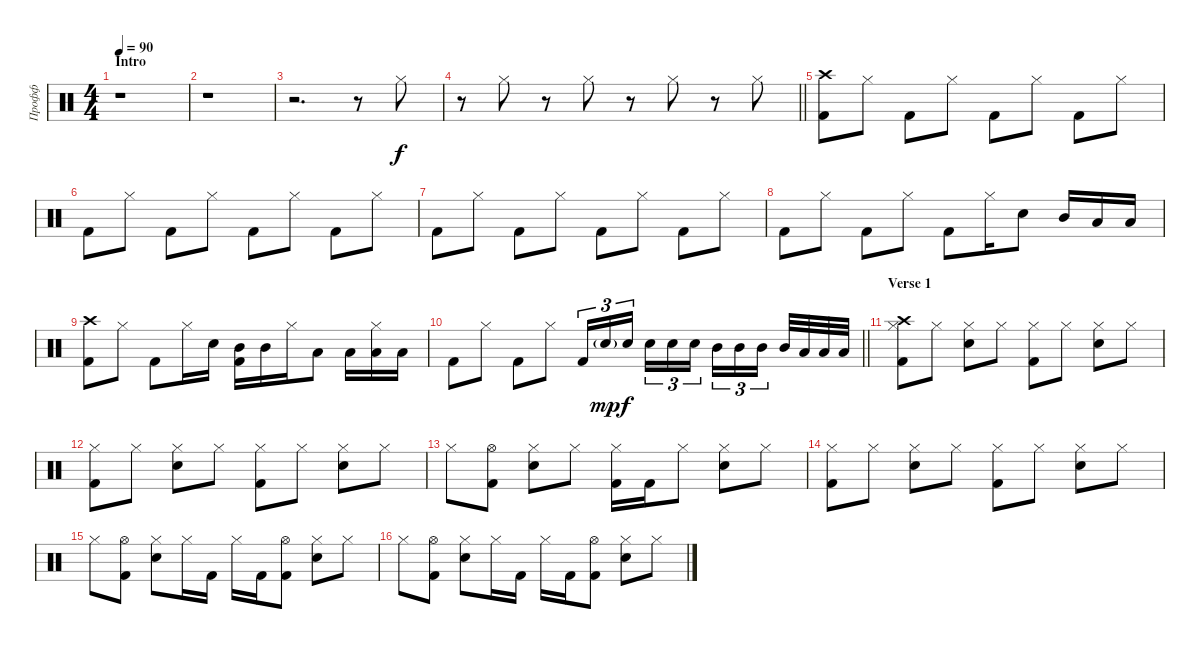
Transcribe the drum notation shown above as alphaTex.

\track ("Профф" "Профф") {instrument percussion}
\staff {score}
\articulation defaults
\ts (4 4)
\section ("" "Intro")
\tempo 90
\clef neutral
\ks c
r.1{dy f} |
r.1 |
r.2{d} r.8 "Hi-Hat (closed)".8 |
\barLineRight lightlight
r.8 "Hi-Hat (closed)".8 r.8 "Hi-Hat (closed)".8 r.8 "Hi-Hat (closed)".8 r.8 "Hi-Hat (closed)".8 |
("Crash high (hit)" "Kick (hit) 2").8 "Hi-Hat (closed)".8 "Kick (hit) 2".8 "Hi-Hat (closed)".8 "Kick (hit) 2".8 "Hi-Hat (closed)".8 "Kick (hit) 2".8 "Hi-Hat (closed)".8 |
"Kick (hit) 2".8 "Hi-Hat (closed)".8 "Kick (hit) 2".8 "Hi-Hat (closed)".8 "Kick (hit) 2".8 "Hi-Hat (closed)".8 "Kick (hit) 2".8 "Hi-Hat (closed)".8 |
"Kick (hit) 2".8 "Hi-Hat (closed)".8 "Kick (hit) 2".8 "Hi-Hat (closed)".8 "Kick (hit) 2".8 "Hi-Hat (closed)".8 "Kick (hit) 2".8 "Hi-Hat (closed)".8 |
"Kick (hit) 2".8 "Hi-Hat (closed)".8 "Kick (hit) 2".8 "Hi-Hat (closed)".8 "Kick (hit) 2".8 "Hi-Hat (closed)".16 "Snare (hit) 2".8 "Mid Tom (hit)".16 "Low Tom (hit)".16 "Low Floor Tom (hit)".16 |
("Crash high (hit)" "Kick (hit) 2").8 "Hi-Hat (closed)".8 "Kick (hit) 2".8 "Hi-Hat (closed)".16 "Snare (hit) 2".16 ("Mid Tom (hit)" "Kick (hit) 2").16 "Mid Tom (hit)".16 "Hi-Hat (closed)".16 "Low Tom (hit)".8 "Low Tom (hit)".16 ("Hi-Hat (closed)" "Low Tom (hit)").16 "Low Floor Tom (hit)".16 |
\barLineRight lightlight "Kick (hit) 2".8 "Hi-Hat (closed)".8 "Kick (hit) 2".8 "Hi-Hat (closed)".8 "Kick (hit) 2".16{tu (3 2)} "Snare (hit) 2"{g}.16{tu (3 2) dy mp} "Snare (hit) 2".16{tu (3 2) dy f} "Snare (hit) 2".16{tu (3 2)} "Snare (hit) 2".16{tu (3 2)} "Snare (hit) 2".16{tu (3 2)} "Mid Tom (hit)".16{tu (3 2)} "Mid Tom (hit)".16{tu (3 2)} "Mid Tom (hit)".16{tu (3 2)} "Mid Tom (hit)".32 "Low Tom (hit)".32 "Low Tom (hit)".32 "Low Tom (hit)".32
|
\section ("" "Verse 1")
("Hi-Hat (closed)" "Crash high (hit)" "Kick (hit) 2").8 "Hi-Hat (closed)".8 ("Hi-Hat (closed)" "Snare (hit) 2").8 "Hi-Hat (closed)".8 ("Hi-Hat (closed)" "Kick (hit) 2").8 "Hi-Hat (closed)".8 ("Hi-Hat (closed)" "Snare (hit) 2").8 "Hi-Hat (closed)".8 |
("Hi-Hat (closed)" "Kick (hit) 2").8 "Hi-Hat (closed)".8 ("Hi-Hat (closed)" "Snare (hit) 2").8 "Hi-Hat (closed)".8 ("Hi-Hat (closed)" "Kick (hit) 2").8 "Hi-Hat (closed)".8 ("Hi-Hat (closed)" "Snare (hit) 2").8 "Hi-Hat (closed)".8 |
"Hi-Hat (closed)".8 ("Hi-Hat (open)" "Kick (hit) 2").8 ("Hi-Hat (closed)" "Snare (hit) 2").8 "Hi-Hat (closed)".8 ("Hi-Hat (closed)" "Kick (hit) 2").16 "Kick (hit) 2".16 "Hi-Hat (closed)".8 ("Hi-Hat (closed)" "Snare (hit) 2").8 "Hi-Hat (closed)".8 |
("Hi-Hat (closed)" "Kick (hit) 2").8 "Hi-Hat (closed)".8 ("Hi-Hat (closed)" "Snare (hit) 2").8 "Hi-Hat (closed)".8 ("Hi-Hat (closed)" "Kick (hit) 2").8 "Hi-Hat (closed)".8 ("Hi-Hat (closed)" "Snare (hit) 2").8 "Hi-Hat (closed)".8 |
"Hi-Hat (closed)".8 ("Hi-Hat (open)" "Kick (hit) 2").8 ("Hi-Hat (closed)" "Snare (hit) 2").8 "Hi-Hat (closed)".16 "Kick (hit) 2".16 "Hi-Hat (closed)".16 "Kick (hit) 2".16 ("Hi-Hat (open)" "Kick (hit) 2").8 ("Hi-Hat (closed)" "Snare (hit) 2").8 "Hi-Hat (closed)".8 |
"Hi-Hat (closed)".8 ("Hi-Hat (open)" "Kick (hit) 2").8 ("Hi-Hat (closed)" "Snare (hit) 2").8 "Hi-Hat (closed)".16 "Kick (hit) 2".16 "Hi-Hat (closed)".16 "Kick (hit) 2".16 ("Hi-Hat (open)" "Kick (hit) 2").8 ("Hi-Hat (closed)" "Snare (hit) 2").8 "Hi-Hat (closed)".8
